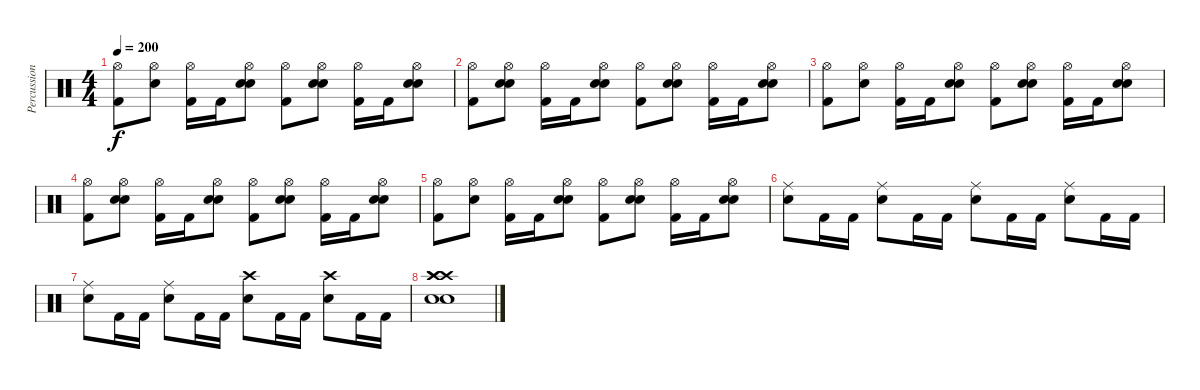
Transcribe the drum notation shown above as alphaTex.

\track ("Percussion" "Percussion") {instrument percussion}
\staff {score}
\articulation defaults
\ts (4 4)
\tempo 200
\clef neutral
\ks c
("Hi-Hat (open)" "Kick (hit) 2").8{dy f} ("Hi-Hat (open)" "Electric Snare (hit)").8 ("Hi-Hat (open)" "Kick (hit) 2").16 "Kick (hit) 2".16 ("Hi-Hat (open)" "Electric Snare (hit)" "Electric Snare (hit)").8 ("Hi-Hat (open)" "Kick (hit) 2").8 ("Hi-Hat (open)" "Electric Snare (hit)" "Electric Snare (hit)").8 ("Hi-Hat (open)" "Kick (hit) 2").16 "Kick (hit) 2".16 ("Hi-Hat (open)" "Electric Snare (hit)" "Electric Snare (hit)").8 |
("Hi-Hat (open)" "Kick (hit) 2").8 ("Hi-Hat (open)" "Electric Snare (hit)" "Electric Snare (hit)").8 ("Hi-Hat (open)" "Kick (hit) 2").16 "Kick (hit) 2".16 ("Hi-Hat (open)" "Electric Snare (hit)" "Electric Snare (hit)").8 ("Hi-Hat (open)" "Kick (hit) 2").8 ("Hi-Hat (open)" "Electric Snare (hit)" "Electric Snare (hit)").8 ("Hi-Hat (open)" "Kick (hit) 2").16 "Kick (hit) 2".16 ("Hi-Hat (open)" "Electric Snare (hit)" "Electric Snare (hit)").8 |
("Hi-Hat (open)" "Kick (hit) 2").8 ("Hi-Hat (open)" "Electric Snare (hit)").8 ("Hi-Hat (open)" "Kick (hit) 2").16 "Kick (hit) 2".16 ("Hi-Hat (open)" "Electric Snare (hit)" "Electric Snare (hit)").8 ("Hi-Hat (open)" "Kick (hit) 2").8 ("Hi-Hat (open)" "Electric Snare (hit)" "Electric Snare (hit)").8 ("Hi-Hat (open)" "Kick (hit) 2").16 "Kick (hit) 2".16 ("Hi-Hat (open)" "Electric Snare (hit)" "Electric Snare (hit)").8 |
("Hi-Hat (open)" "Kick (hit) 2").8 ("Hi-Hat (open)" "Electric Snare (hit)" "Electric Snare (hit)").8 ("Hi-Hat (open)" "Kick (hit) 2").16 "Kick (hit) 2".16 ("Hi-Hat (open)" "Electric Snare (hit)" "Electric Snare (hit)").8 ("Hi-Hat (open)" "Kick (hit) 2").8 ("Hi-Hat (open)" "Electric Snare (hit)" "Electric Snare (hit)").8 ("Hi-Hat (open)" "Kick (hit) 2").16 "Kick (hit) 2".16 ("Hi-Hat (open)" "Electric Snare (hit)" "Electric Snare (hit)").8 |
("Hi-Hat (open)" "Kick (hit) 2").8 ("Hi-Hat (open)" "Electric Snare (hit)").8 ("Hi-Hat (open)" "Kick (hit) 2").16 "Kick (hit) 2".16 ("Hi-Hat (open)" "Electric Snare (hit)" "Electric Snare (hit)").8 ("Hi-Hat (open)" "Kick (hit) 2").8 ("Hi-Hat (open)" "Electric Snare (hit)" "Electric Snare (hit)").8 ("Hi-Hat (open)" "Kick (hit) 2").16 "Kick (hit) 2".16 ("Hi-Hat (open)" "Electric Snare (hit)" "Electric Snare (hit)").8 |
("Ride (middle)" "Electric Snare (hit)").8 "Kick (hit) 2".16 "Kick (hit) 2".16 ("Ride (middle)" "Electric Snare (hit)").8 "Kick (hit) 2".16 "Kick (hit) 2".16 ("Ride (middle)" "Electric Snare (hit)").8 "Kick (hit) 2".16 "Kick (hit) 2".16 ("Ride (middle)" "Electric Snare (hit)").8 "Kick (hit) 2".16 "Kick (hit) 2".16 |
("Ride (middle)" "Electric Snare (hit)").8 "Kick (hit) 2".16 "Kick (hit) 2".16 ("Ride (middle)" "Electric Snare (hit)").8 "Kick (hit) 2".16 "Kick (hit) 2".16 ("Crash high (hit)" "Electric Snare (hit)").8 "Kick (hit) 2".16 "Kick (hit) 2".16 ("Crash high (hit)" "Electric Snare (hit)").8 "Kick (hit) 2".16 "Kick (hit) 2".16 |
("Crash high (hit)" "Crash high (hit)" "Crash high (hit)" "Electric Snare (hit)" "Electric Snare (hit)").1
